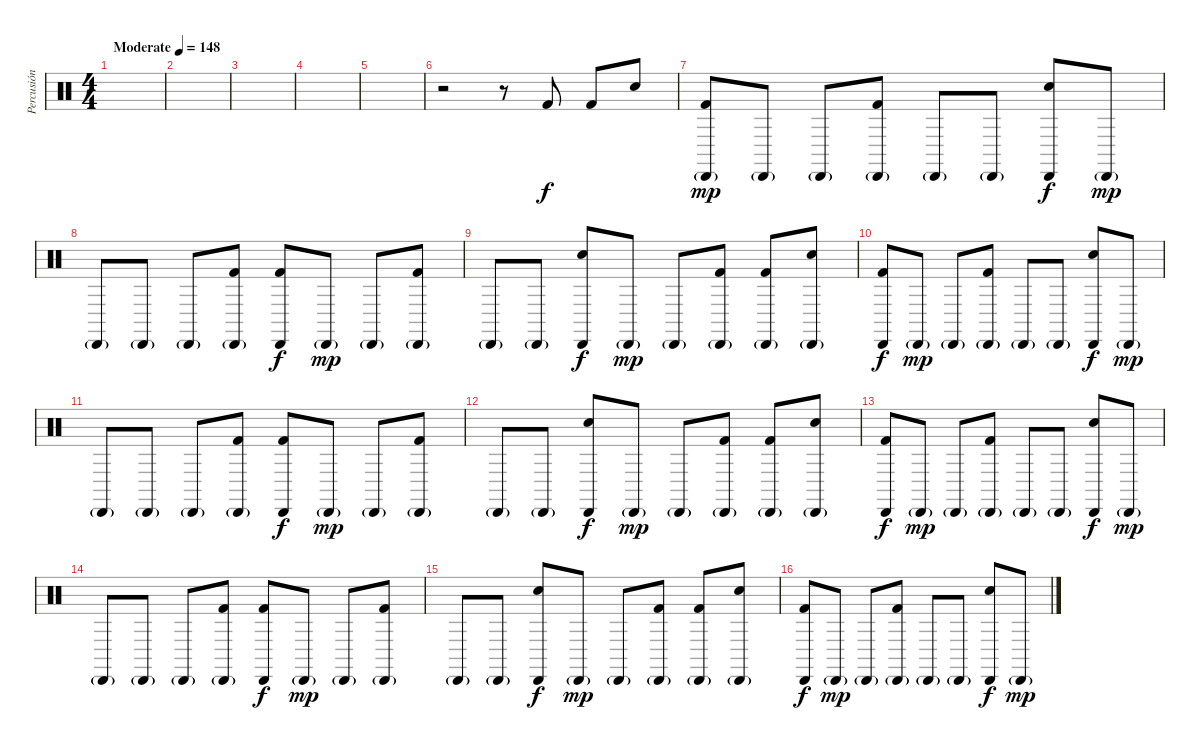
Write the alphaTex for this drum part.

\track ("Percusión" "Percusión") {instrument percussion}
\staff {score}
\articulation defaults
\ts (4 4)
\tempo (148 "Moderate")
\clef neutral
\ks c
|
|
|
|
|
r.2 r.8 "Kick (hit) 2".8 "Kick (hit) 2".8 "Electric Snare (hit)".8 |
("Kick (hit) 2" "Cabasa (hit)"{g}).8{dy mp} "Cabasa (hit)"{g}.8 "Cabasa (hit)"{g}.8 ("Kick (hit) 2" "Cabasa (hit)"{g}).8 "Cabasa (hit)"{g}.8 "Cabasa (hit)"{g}.8 ("Electric Snare (hit)" "Cabasa (hit)").8{dy f} "Cabasa (hit)"{g}.8{dy mp} |
"Cabasa (hit)"{g}.8 "Cabasa (hit)"{g}.8 "Cabasa (hit)"{g}.8 ("Kick (hit) 2" "Cabasa (hit)"{g}).8 ("Kick (hit) 2" "Cabasa (hit)").8{dy f} "Cabasa (hit)"{g}.8{dy mp} "Cabasa (hit)"{g}.8 ("Kick (hit) 2" "Cabasa (hit)"{g}).8 |
"Cabasa (hit)"{g}.8 "Cabasa (hit)"{g}.8 ("Electric Snare (hit)" "Cabasa (hit)").8{dy f} "Cabasa (hit)"{g}.8{dy mp} "Cabasa (hit)"{g}.8 ("Kick (hit) 2" "Cabasa (hit)"{g}).8 ("Kick (hit) 2" "Cabasa (hit)"{g}).8 ("Electric Snare (hit)" "Cabasa (hit)"{g}).8 |
("Kick (hit) 2" "Cabasa (hit)").8{dy f} "Cabasa (hit)"{g}.8{dy mp} "Cabasa (hit)"{g}.8 ("Kick (hit) 2" "Cabasa (hit)"{g}).8 "Cabasa (hit)"{g}.8 "Cabasa (hit)"{g}.8 ("Electric Snare (hit)" "Cabasa (hit)").8{dy f} "Cabasa (hit)"{g}.8{dy mp} |
"Cabasa (hit)"{g}.8 "Cabasa (hit)"{g}.8 "Cabasa (hit)"{g}.8 ("Kick (hit) 2" "Cabasa (hit)"{g}).8 ("Kick (hit) 2" "Cabasa (hit)").8{dy f} "Cabasa (hit)"{g}.8{dy mp} "Cabasa (hit)"{g}.8 ("Kick (hit) 2" "Cabasa (hit)"{g}).8 |
"Cabasa (hit)"{g}.8 "Cabasa (hit)"{g}.8 ("Electric Snare (hit)" "Cabasa (hit)").8{dy f} "Cabasa (hit)"{g}.8{dy mp} "Cabasa (hit)"{g}.8 ("Kick (hit) 2" "Cabasa (hit)"{g}).8 ("Kick (hit) 2" "Cabasa (hit)"{g}).8 ("Electric Snare (hit)" "Cabasa (hit)"{g}).8 |
("Kick (hit) 2" "Cabasa (hit)").8{dy f} "Cabasa (hit)"{g}.8{dy mp} "Cabasa (hit)"{g}.8 ("Kick (hit) 2" "Cabasa (hit)"{g}).8 "Cabasa (hit)"{g}.8 "Cabasa (hit)"{g}.8 ("Electric Snare (hit)" "Cabasa (hit)").8{dy f} "Cabasa (hit)"{g}.8{dy mp} |
"Cabasa (hit)"{g}.8 "Cabasa (hit)"{g}.8 "Cabasa (hit)"{g}.8 ("Kick (hit) 2" "Cabasa (hit)"{g}).8 ("Kick (hit) 2" "Cabasa (hit)").8{dy f} "Cabasa (hit)"{g}.8{dy mp} "Cabasa (hit)"{g}.8 ("Kick (hit) 2" "Cabasa (hit)"{g}).8 |
"Cabasa (hit)"{g}.8 "Cabasa (hit)"{g}.8 ("Electric Snare (hit)" "Cabasa (hit)").8{dy f} "Cabasa (hit)"{g}.8{dy mp} "Cabasa (hit)"{g}.8 ("Kick (hit) 2" "Cabasa (hit)"{g}).8 ("Kick (hit) 2" "Cabasa (hit)"{g}).8 ("Electric Snare (hit)" "Cabasa (hit)"{g}).8 |
("Kick (hit) 2" "Cabasa (hit)").8{dy f} "Cabasa (hit)"{g}.8{dy mp} "Cabasa (hit)"{g}.8 ("Kick (hit) 2" "Cabasa (hit)"{g}).8 "Cabasa (hit)"{g}.8 "Cabasa (hit)"{g}.8 ("Electric Snare (hit)" "Cabasa (hit)").8{dy f} "Cabasa (hit)"{g}.8{dy mp}
